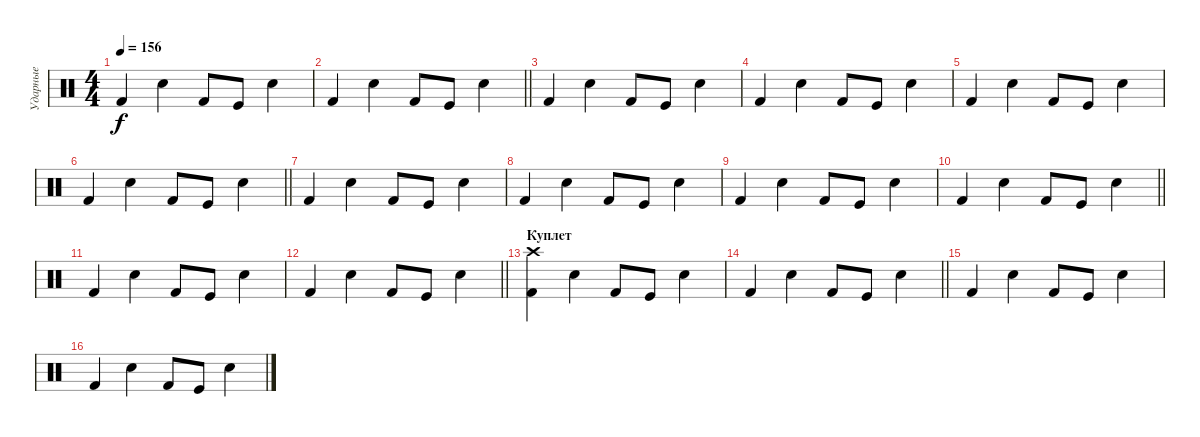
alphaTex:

\track ("Ударные" "Ударные") {instrument percussion}
\staff {score}
\articulation defaults
\ts (4 4)
\tempo 156
\clef neutral
\ks c "Kick (hit) 2".4{dy f} "Snare (hit) 2".4 "Kick (hit) 2".8 "Kick (hit)".8 "Snare (hit) 2".4
|
\barLineRight lightlight "Kick (hit) 2".4 "Snare (hit) 2".4 "Kick (hit) 2".8 "Kick (hit)".8 "Snare (hit) 2".4
|
"Kick (hit) 2".4 "Snare (hit) 2".4 "Kick (hit) 2".8 "Kick (hit)".8 "Snare (hit) 2".4 |
"Kick (hit) 2".4 "Snare (hit) 2".4 "Kick (hit) 2".8 "Kick (hit)".8 "Snare (hit) 2".4 |
"Kick (hit) 2".4 "Snare (hit) 2".4 "Kick (hit) 2".8 "Kick (hit)".8 "Snare (hit) 2".4 |
\barLineRight lightlight "Kick (hit) 2".4 "Snare (hit) 2".4 "Kick (hit) 2".8 "Kick (hit)".8 "Snare (hit) 2".4
|
"Kick (hit) 2".4 "Snare (hit) 2".4 "Kick (hit) 2".8 "Kick (hit)".8 "Snare (hit) 2".4 |
"Kick (hit) 2".4 "Snare (hit) 2".4 "Kick (hit) 2".8 "Kick (hit)".8 "Snare (hit) 2".4 |
"Kick (hit) 2".4 "Snare (hit) 2".4 "Kick (hit) 2".8 "Kick (hit)".8 "Snare (hit) 2".4 |
\barLineRight lightlight "Kick (hit) 2".4 "Snare (hit) 2".4 "Kick (hit) 2".8 "Kick (hit)".8 "Snare (hit) 2".4
|
"Kick (hit) 2".4 "Snare (hit) 2".4 "Kick (hit) 2".8 "Kick (hit)".8 "Snare (hit) 2".4 |
\barLineRight lightlight "Kick (hit) 2".4 "Snare (hit) 2".4 "Kick (hit) 2".8 "Kick (hit)".8 "Snare (hit) 2".4
|
\section ("" "Куплет")
("Kick (hit) 2" "Crash high (hit)").4 "Snare (hit) 2".4 "Kick (hit) 2".8 "Kick (hit)".8 "Snare (hit) 2".4 |
\barLineRight lightlight "Kick (hit) 2".4 "Snare (hit) 2".4 "Kick (hit) 2".8 "Kick (hit)".8 "Snare (hit) 2".4
|
"Kick (hit) 2".4 "Snare (hit) 2".4 "Kick (hit) 2".8 "Kick (hit)".8 "Snare (hit) 2".4 |
"Kick (hit) 2".4 "Snare (hit) 2".4 "Kick (hit) 2".8 "Kick (hit)".8 "Snare (hit) 2".4
